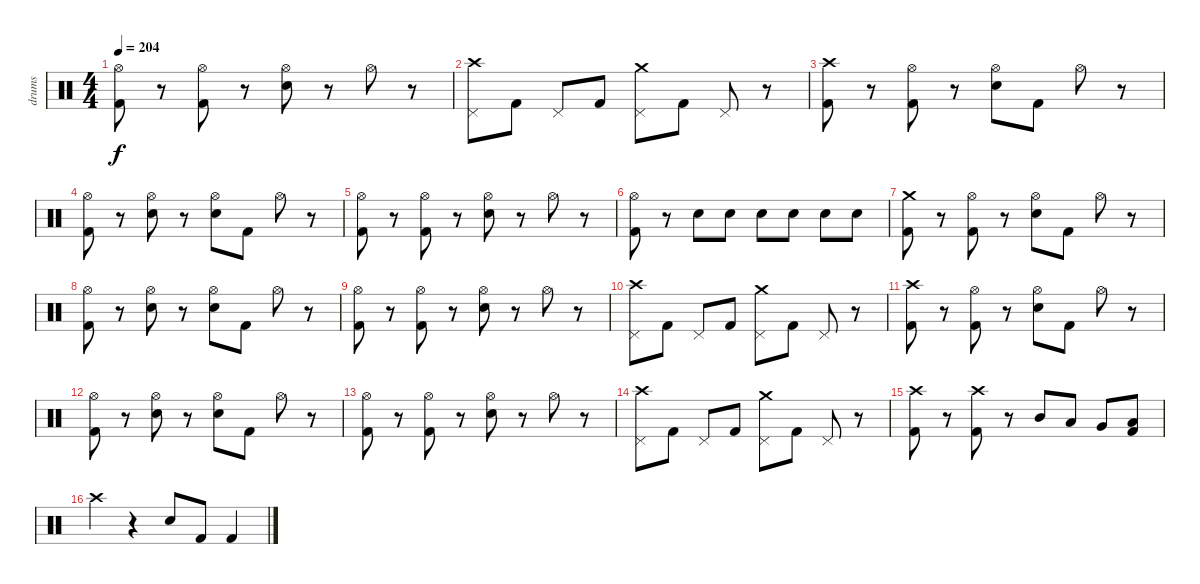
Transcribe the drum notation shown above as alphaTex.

\track ("drums" "drums") {instrument percussion}
\staff {score}
\articulation defaults
\ts (4 4)
\tempo 204
\clef neutral
\ks c
("Hi-Hat (open)" "Kick (hit) 2").8{dy f} r.8 ("Hi-Hat (open)" "Kick (hit) 2").8 r.8 ("Hi-Hat (open)" "Snare (hit) 2").8 r.8 "Hi-Hat (open)".8 r.8 |
("Crash high (hit)" "Pedal Hi-Hat (hit)").8 "Kick (hit) 2".8 "Pedal Hi-Hat (hit)".8 "Kick (hit) 2".8 ("Crash medium (hit)" "Pedal Hi-Hat (hit)").8 "Kick (hit) 2".8 "Pedal Hi-Hat (hit)".8 r.8 |
("Crash high (hit)" "Kick (hit) 2").8 r.8 ("Hi-Hat (open)" "Kick (hit) 2").8 r.8 ("Hi-Hat (open)" "Snare (hit) 2").8 "Kick (hit) 2".8 "Hi-Hat (open)".8 r.8 |
("Hi-Hat (open)" "Kick (hit) 2").8 r.8 ("Hi-Hat (open)" "Snare (hit) 2").8 r.8 ("Hi-Hat (open)" "Snare (hit) 2").8 "Kick (hit) 2".8 "Hi-Hat (open)".8 r.8 |
("Hi-Hat (open)" "Kick (hit) 2").8 r.8 ("Hi-Hat (open)" "Kick (hit) 2").8 r.8 ("Hi-Hat (open)" "Snare (hit) 2").8 r.8 "Hi-Hat (open)".8 r.8 |
("Hi-Hat (open)" "Kick (hit) 2").8 r.8 "Snare (hit) 2".8 "Snare (hit) 2".8 "Snare (hit) 2".8 "Snare (hit) 2".8 "Snare (hit) 2".8 "Snare (hit) 2".8 |
("Crash medium (hit)" "Kick (hit) 2").8 r.8 ("Hi-Hat (open)" "Kick (hit) 2").8 r.8 ("Hi-Hat (open)" "Snare (hit) 2").8 "Kick (hit) 2".8 "Hi-Hat (open)".8 r.8 |
("Hi-Hat (open)" "Kick (hit) 2").8 r.8 ("Hi-Hat (open)" "Snare (hit) 2").8 r.8 ("Hi-Hat (open)" "Snare (hit) 2").8 "Kick (hit) 2".8 "Hi-Hat (open)".8 r.8 |
("Hi-Hat (open)" "Kick (hit) 2").8 r.8 ("Hi-Hat (open)" "Kick (hit) 2").8 r.8 ("Hi-Hat (open)" "Snare (hit) 2").8 r.8 "Hi-Hat (open)".8 r.8 |
("Crash high (hit)" "Pedal Hi-Hat (hit)").8 "Kick (hit) 2".8 "Pedal Hi-Hat (hit)".8 "Kick (hit) 2".8 ("Crash medium (hit)" "Pedal Hi-Hat (hit)").8 "Kick (hit) 2".8 "Pedal Hi-Hat (hit)".8 r.8 |
("Crash high (hit)" "Kick (hit) 2").8 r.8 ("Hi-Hat (open)" "Kick (hit) 2").8 r.8 ("Hi-Hat (open)" "Snare (hit) 2").8 "Kick (hit) 2".8 "Hi-Hat (open)".8 r.8 |
("Hi-Hat (open)" "Kick (hit) 2").8 r.8 ("Hi-Hat (open)" "Snare (hit) 2").8 r.8 ("Hi-Hat (open)" "Snare (hit) 2").8 "Kick (hit) 2".8 "Hi-Hat (open)".8 r.8 |
("Hi-Hat (open)" "Kick (hit) 2").8 r.8 ("Hi-Hat (open)" "Kick (hit) 2").8 r.8 ("Hi-Hat (open)" "Snare (hit) 2").8 r.8 "Hi-Hat (open)".8 r.8 |
("Crash high (hit)" "Pedal Hi-Hat (hit)").8 "Kick (hit) 2".8 "Pedal Hi-Hat (hit)".8 "Kick (hit) 2".8 ("Crash medium (hit)" "Pedal Hi-Hat (hit)").8 "Kick (hit) 2".8 "Pedal Hi-Hat (hit)".8 r.8 |
("Crash high (hit)" "Kick (hit) 2").8 r.8 ("Crash high (hit)" "Kick (hit) 2").8 r.8 "Mid Tom (hit)".8 "Low Tom (hit)".8 "Very Low Tom (hit)".8 ("Low Floor Tom (hit)" "Kick (hit) 2").8 |
"Crash high (hit)".4 r.4 "Snare (hit) 2".8 "Kick (hit) 2".8 "Kick (hit) 2".4
